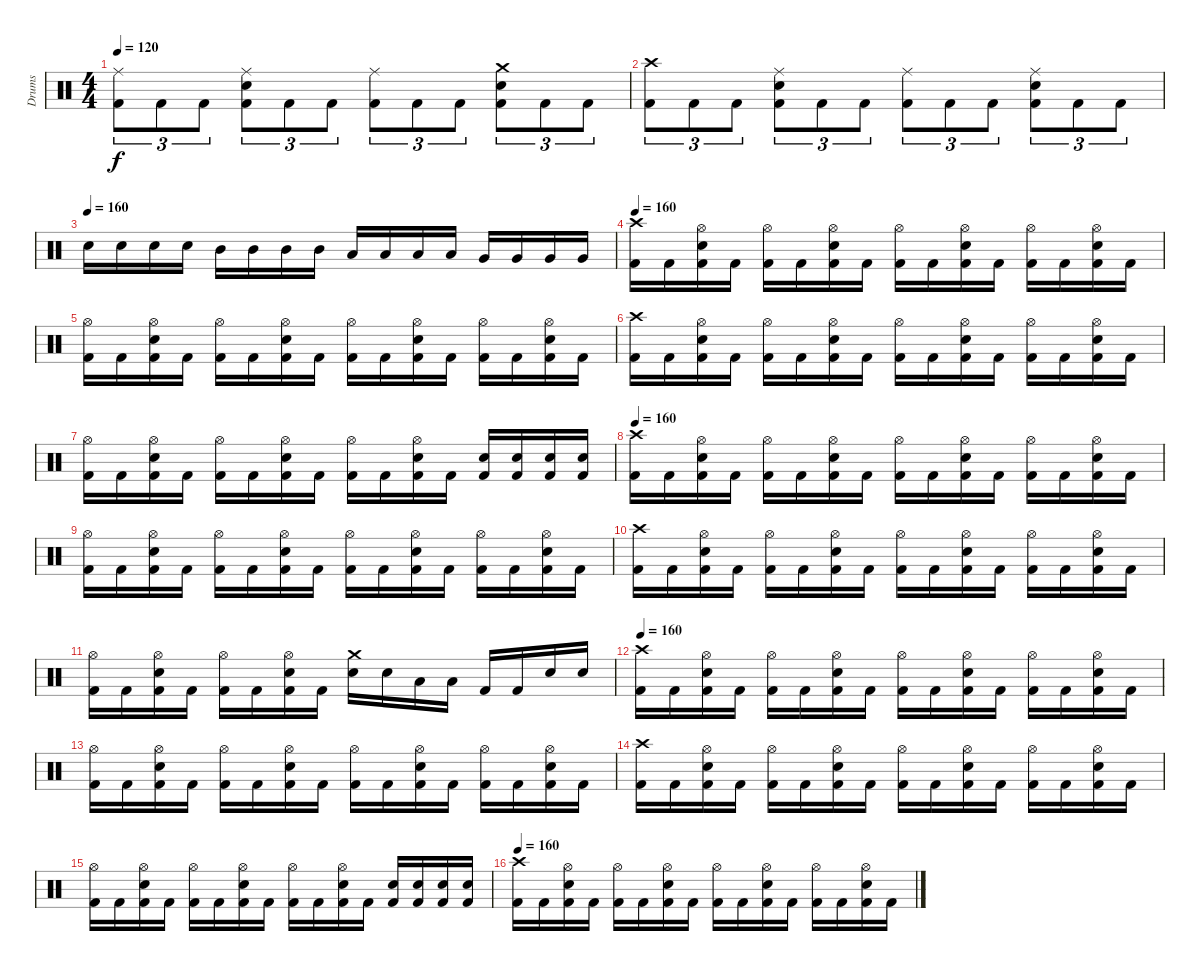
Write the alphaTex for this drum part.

\track ("Drums" "Drums") {instrument percussion}
\staff {score}
\articulation defaults
\ts (4 4)
\tempo 120
\clef neutral
\ks c
("Ride (middle)" "Kick (hit) 2").8{tu (3 2) dy f} "Kick (hit) 2".8{tu (3 2)} "Kick (hit) 2".8{tu (3 2)} ("Ride (middle)" "Snare (hit) 2" "Kick (hit) 2").8{tu (3 2)} "Kick (hit) 2".8{tu (3 2)} "Kick (hit) 2".8{tu (3 2)} ("Ride (middle)" "Kick (hit) 2").8{tu (3 2)} "Kick (hit) 2".8{tu (3 2)} "Kick (hit) 2".8{tu (3 2)} ("Crash medium (hit)" "Snare (hit) 2" "Kick (hit) 2").8{tu (3 2)} "Kick (hit) 2".8{tu (3 2)} "Kick (hit) 2".8{tu (3 2)} |
("Crash high (hit)" "Kick (hit) 2").8{tu (3 2)} "Kick (hit) 2".8{tu (3 2)} "Kick (hit) 2".8{tu (3 2)} ("Ride (middle)" "Snare (hit) 2" "Kick (hit) 2").8{tu (3 2)} "Kick (hit) 2".8{tu (3 2)} "Kick (hit) 2".8{tu (3 2)} ("Ride (middle)" "Kick (hit) 2").8{tu (3 2)} "Kick (hit) 2".8{tu (3 2)} "Kick (hit) 2".8{tu (3 2)} ("Ride (middle)" "Snare (hit) 2" "Kick (hit) 2").8{tu (3 2)} "Kick (hit) 2".8{tu (3 2)} "Kick (hit) 2".8{tu (3 2)} |
\tempo (160)
"Snare (hit) 2".16 "Snare (hit) 2".16 "Snare (hit) 2".16 "Snare (hit) 2".16 "Mid Tom (hit)".16 "Mid Tom (hit)".16 "Mid Tom (hit)".16 "Mid Tom (hit)".16 "Low Tom (hit)".16 "Low Tom (hit)".16 "Low Tom (hit)".16 "Low Tom (hit)".16 "Very Low Tom (hit)".16 "Very Low Tom (hit)".16 "Very Low Tom (hit)".16 "Very Low Tom (hit)".16 |
\tempo 160
("Crash high (hit)" "Kick (hit) 2").16 "Kick (hit) 2".16 ("Hi-Hat (open)" "Snare (hit) 2" "Kick (hit) 2").16 "Kick (hit) 2".16 ("Hi-Hat (open)" "Kick (hit) 2").16 "Kick (hit) 2".16 ("Hi-Hat (open)" "Snare (hit) 2" "Kick (hit) 2").16 "Kick (hit) 2".16 ("Hi-Hat (open)" "Kick (hit) 2").16 "Kick (hit) 2".16 ("Hi-Hat (open)" "Snare (hit) 2" "Kick (hit) 2").16 "Kick (hit) 2".16 ("Hi-Hat (open)" "Kick (hit) 2").16 "Kick (hit) 2".16 ("Hi-Hat (open)" "Snare (hit) 2" "Kick (hit) 2").16 "Kick (hit) 2".16 |
("Hi-Hat (open)" "Kick (hit) 2").16 "Kick (hit) 2".16 ("Hi-Hat (open)" "Snare (hit) 2" "Kick (hit) 2").16 "Kick (hit) 2".16 ("Hi-Hat (open)" "Kick (hit) 2").16 "Kick (hit) 2".16 ("Hi-Hat (open)" "Snare (hit) 2" "Kick (hit) 2").16 "Kick (hit) 2".16 ("Hi-Hat (open)" "Kick (hit) 2").16 "Kick (hit) 2".16 ("Hi-Hat (open)" "Snare (hit) 2" "Kick (hit) 2").16 "Kick (hit) 2".16 ("Hi-Hat (open)" "Kick (hit) 2").16 "Kick (hit) 2".16 ("Hi-Hat (open)" "Snare (hit) 2" "Kick (hit) 2").16 "Kick (hit) 2".16 |
("Crash high (hit)" "Kick (hit) 2").16 "Kick (hit) 2".16 ("Hi-Hat (open)" "Snare (hit) 2" "Kick (hit) 2").16 "Kick (hit) 2".16 ("Hi-Hat (open)" "Kick (hit) 2").16 "Kick (hit) 2".16 ("Hi-Hat (open)" "Snare (hit) 2" "Kick (hit) 2").16 "Kick (hit) 2".16 ("Hi-Hat (open)" "Kick (hit) 2").16 "Kick (hit) 2".16 ("Hi-Hat (open)" "Snare (hit) 2" "Kick (hit) 2").16 "Kick (hit) 2".16 ("Hi-Hat (open)" "Kick (hit) 2").16 "Kick (hit) 2".16 ("Hi-Hat (open)" "Snare (hit) 2" "Kick (hit) 2").16 "Kick (hit) 2".16 |
("Hi-Hat (open)" "Kick (hit) 2").16 "Kick (hit) 2".16 ("Hi-Hat (open)" "Snare (hit) 2" "Kick (hit) 2").16 "Kick (hit) 2".16 ("Hi-Hat (open)" "Kick (hit) 2").16 "Kick (hit) 2".16 ("Hi-Hat (open)" "Snare (hit) 2" "Kick (hit) 2").16 "Kick (hit) 2".16 ("Hi-Hat (open)" "Kick (hit) 2").16 "Kick (hit) 2".16 ("Hi-Hat (open)" "Snare (hit) 2" "Kick (hit) 2").16 "Kick (hit) 2".16 ("Snare (hit) 2" "Kick (hit) 2").16 ("Snare (hit) 2" "Kick (hit) 2").16 ("Snare (hit) 2" "Kick (hit) 2").16 ("Snare (hit) 2" "Kick (hit) 2").16 |
\tempo 160
("Crash high (hit)" "Kick (hit) 2").16 "Kick (hit) 2".16 ("Hi-Hat (open)" "Snare (hit) 2" "Kick (hit) 2").16 "Kick (hit) 2".16 ("Hi-Hat (open)" "Kick (hit) 2").16 "Kick (hit) 2".16 ("Hi-Hat (open)" "Snare (hit) 2" "Kick (hit) 2").16 "Kick (hit) 2".16 ("Hi-Hat (open)" "Kick (hit) 2").16 "Kick (hit) 2".16 ("Hi-Hat (open)" "Snare (hit) 2" "Kick (hit) 2").16 "Kick (hit) 2".16 ("Hi-Hat (open)" "Kick (hit) 2").16 "Kick (hit) 2".16 ("Hi-Hat (open)" "Snare (hit) 2" "Kick (hit) 2").16 "Kick (hit) 2".16 |
("Hi-Hat (open)" "Kick (hit) 2").16 "Kick (hit) 2".16 ("Hi-Hat (open)" "Snare (hit) 2" "Kick (hit) 2").16 "Kick (hit) 2".16 ("Hi-Hat (open)" "Kick (hit) 2").16 "Kick (hit) 2".16 ("Hi-Hat (open)" "Snare (hit) 2" "Kick (hit) 2").16 "Kick (hit) 2".16 ("Hi-Hat (open)" "Kick (hit) 2").16 "Kick (hit) 2".16 ("Hi-Hat (open)" "Snare (hit) 2" "Kick (hit) 2").16 "Kick (hit) 2".16 ("Hi-Hat (open)" "Kick (hit) 2").16 "Kick (hit) 2".16 ("Hi-Hat (open)" "Snare (hit) 2" "Kick (hit) 2").16 "Kick (hit) 2".16 |
("Crash high (hit)" "Kick (hit) 2").16 "Kick (hit) 2".16 ("Hi-Hat (open)" "Snare (hit) 2" "Kick (hit) 2").16 "Kick (hit) 2".16 ("Hi-Hat (open)" "Kick (hit) 2").16 "Kick (hit) 2".16 ("Hi-Hat (open)" "Snare (hit) 2" "Kick (hit) 2").16 "Kick (hit) 2".16 ("Hi-Hat (open)" "Kick (hit) 2").16 "Kick (hit) 2".16 ("Hi-Hat (open)" "Snare (hit) 2" "Kick (hit) 2").16 "Kick (hit) 2".16 ("Hi-Hat (open)" "Kick (hit) 2").16 "Kick (hit) 2".16 ("Hi-Hat (open)" "Snare (hit) 2" "Kick (hit) 2").16 "Kick (hit) 2".16 |
("Hi-Hat (open)" "Kick (hit) 2").16 "Kick (hit) 2".16 ("Hi-Hat (open)" "Snare (hit) 2" "Kick (hit) 2").16 "Kick (hit) 2".16 ("Hi-Hat (open)" "Kick (hit) 2").16 "Kick (hit) 2".16 ("Hi-Hat (open)" "Snare (hit) 2" "Kick (hit) 2").16 "Kick (hit) 2".16 ("Crash medium (hit)" "Snare (hit) 2").16 "Snare (hit) 2".16 "Low Tom (hit)".16 "Low Tom (hit)".16 "Kick (hit) 2".16 "Kick (hit) 2".16 "Snare (hit) 2".16 "Snare (hit) 2".16 |
\tempo 160
("Crash high (hit)" "Kick (hit) 2").16 "Kick (hit) 2".16 ("Hi-Hat (open)" "Snare (hit) 2" "Kick (hit) 2").16 "Kick (hit) 2".16 ("Hi-Hat (open)" "Kick (hit) 2").16 "Kick (hit) 2".16 ("Hi-Hat (open)" "Snare (hit) 2" "Kick (hit) 2").16 "Kick (hit) 2".16 ("Hi-Hat (open)" "Kick (hit) 2").16 "Kick (hit) 2".16 ("Hi-Hat (open)" "Snare (hit) 2" "Kick (hit) 2").16 "Kick (hit) 2".16 ("Hi-Hat (open)" "Kick (hit) 2").16 "Kick (hit) 2".16 ("Hi-Hat (open)" "Snare (hit) 2" "Kick (hit) 2").16 "Kick (hit) 2".16 |
("Hi-Hat (open)" "Kick (hit) 2").16 "Kick (hit) 2".16 ("Hi-Hat (open)" "Snare (hit) 2" "Kick (hit) 2").16 "Kick (hit) 2".16 ("Hi-Hat (open)" "Kick (hit) 2").16 "Kick (hit) 2".16 ("Hi-Hat (open)" "Snare (hit) 2" "Kick (hit) 2").16 "Kick (hit) 2".16 ("Hi-Hat (open)" "Kick (hit) 2").16 "Kick (hit) 2".16 ("Hi-Hat (open)" "Snare (hit) 2" "Kick (hit) 2").16 "Kick (hit) 2".16 ("Hi-Hat (open)" "Kick (hit) 2").16 "Kick (hit) 2".16 ("Hi-Hat (open)" "Snare (hit) 2" "Kick (hit) 2").16 "Kick (hit) 2".16 |
("Crash high (hit)" "Kick (hit) 2").16 "Kick (hit) 2".16 ("Hi-Hat (open)" "Snare (hit) 2" "Kick (hit) 2").16 "Kick (hit) 2".16 ("Hi-Hat (open)" "Kick (hit) 2").16 "Kick (hit) 2".16 ("Hi-Hat (open)" "Snare (hit) 2" "Kick (hit) 2").16 "Kick (hit) 2".16 ("Hi-Hat (open)" "Kick (hit) 2").16 "Kick (hit) 2".16 ("Hi-Hat (open)" "Snare (hit) 2" "Kick (hit) 2").16 "Kick (hit) 2".16 ("Hi-Hat (open)" "Kick (hit) 2").16 "Kick (hit) 2".16 ("Hi-Hat (open)" "Snare (hit) 2" "Kick (hit) 2").16 "Kick (hit) 2".16 |
("Hi-Hat (open)" "Kick (hit) 2").16 "Kick (hit) 2".16 ("Hi-Hat (open)" "Snare (hit) 2" "Kick (hit) 2").16 "Kick (hit) 2".16 ("Hi-Hat (open)" "Kick (hit) 2").16 "Kick (hit) 2".16 ("Hi-Hat (open)" "Snare (hit) 2" "Kick (hit) 2").16 "Kick (hit) 2".16 ("Hi-Hat (open)" "Kick (hit) 2").16 "Kick (hit) 2".16 ("Hi-Hat (open)" "Snare (hit) 2" "Kick (hit) 2").16 "Kick (hit) 2".16 ("Snare (hit) 2" "Kick (hit) 2").16 ("Snare (hit) 2" "Kick (hit) 2").16 ("Snare (hit) 2" "Kick (hit) 2").16 ("Snare (hit) 2" "Kick (hit) 2").16 |
\tempo 160
("Crash high (hit)" "Kick (hit) 2").16 "Kick (hit) 2".16 ("Hi-Hat (open)" "Snare (hit) 2" "Kick (hit) 2").16 "Kick (hit) 2".16 ("Hi-Hat (open)" "Kick (hit) 2").16 "Kick (hit) 2".16 ("Hi-Hat (open)" "Snare (hit) 2" "Kick (hit) 2").16 "Kick (hit) 2".16 ("Hi-Hat (open)" "Kick (hit) 2").16 "Kick (hit) 2".16 ("Hi-Hat (open)" "Snare (hit) 2" "Kick (hit) 2").16 "Kick (hit) 2".16 ("Hi-Hat (open)" "Kick (hit) 2").16 "Kick (hit) 2".16 ("Hi-Hat (open)" "Snare (hit) 2" "Kick (hit) 2").16 "Kick (hit) 2".16
